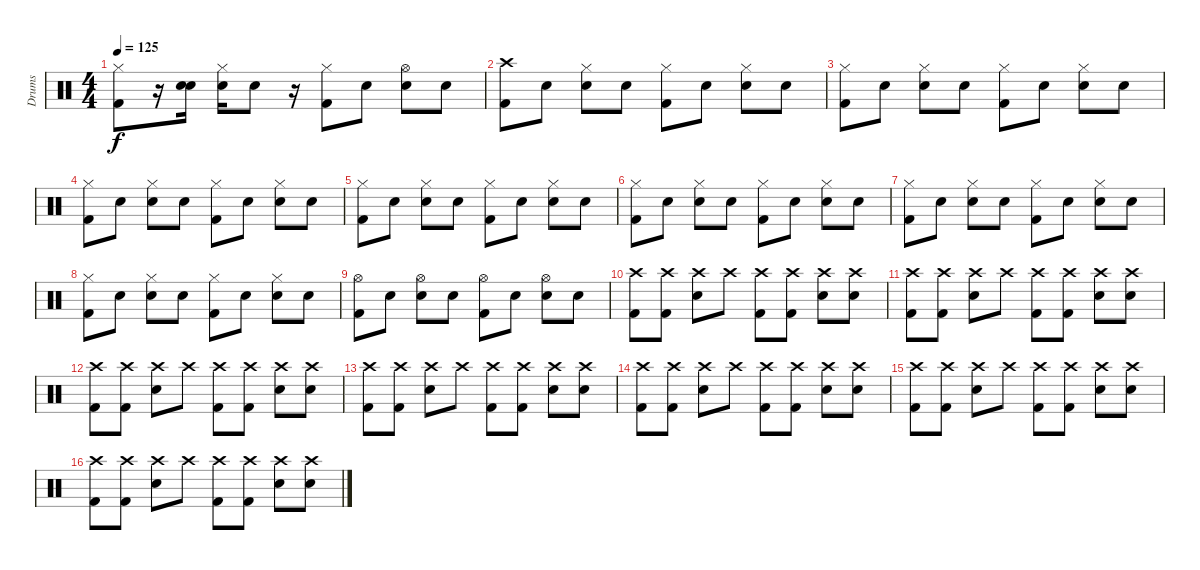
\track ("Drums" "Drums") {instrument percussion}
\staff {score}
\articulation defaults
\ts (4 4)
\tempo 125
\clef neutral
\ks c
("Kick (hit) 2" "Hi-Hat (closed)").8{dy f} r.16 ("Snare (hit) 2" "Snare (hit)").16 ("Snare (hit) 2" "Hi-Hat (closed)").16 "Snare (hit)".8 r.16 ("Kick (hit) 2" "Hi-Hat (closed)").8 "Snare (hit)".8 ("Snare (hit) 2" "Hi-Hat (open)").8 "Snare (hit)".8 |
("Kick (hit) 2" "Crash high (hit)").8 "Snare (hit)".8 ("Snare (hit) 2" "Hi-Hat (closed)").8 "Snare (hit)".8 ("Kick (hit) 2" "Hi-Hat (closed)").8 "Snare (hit)".8 ("Snare (hit) 2" "Hi-Hat (closed)").8 "Snare (hit)".8 |
("Kick (hit) 2" "Hi-Hat (closed)").8 "Snare (hit)".8 ("Snare (hit) 2" "Hi-Hat (closed)").8 "Snare (hit)".8 ("Kick (hit) 2" "Hi-Hat (closed)").8 "Snare (hit)".8 ("Snare (hit) 2" "Hi-Hat (closed)").8 "Snare (hit)".8 |
("Kick (hit) 2" "Hi-Hat (closed)").8 "Snare (hit)".8 ("Snare (hit) 2" "Hi-Hat (closed)").8 "Snare (hit)".8 ("Kick (hit) 2" "Hi-Hat (closed)").8 "Snare (hit)".8 ("Snare (hit) 2" "Hi-Hat (closed)").8 "Snare (hit)".8 |
("Kick (hit) 2" "Hi-Hat (closed)").8 "Snare (hit)".8 ("Snare (hit) 2" "Hi-Hat (closed)").8 "Snare (hit)".8 ("Kick (hit) 2" "Hi-Hat (closed)").8 "Snare (hit)".8 ("Snare (hit) 2" "Hi-Hat (closed)").8 "Snare (hit)".8 |
("Kick (hit) 2" "Hi-Hat (closed)").8 "Snare (hit)".8 ("Snare (hit) 2" "Hi-Hat (closed)").8 "Snare (hit)".8 ("Kick (hit) 2" "Hi-Hat (closed)").8 "Snare (hit)".8 ("Snare (hit) 2" "Hi-Hat (closed)").8 "Snare (hit)".8 |
("Kick (hit) 2" "Hi-Hat (closed)").8 "Snare (hit)".8 ("Snare (hit) 2" "Hi-Hat (closed)").8 "Snare (hit)".8 ("Kick (hit) 2" "Hi-Hat (closed)").8 "Snare (hit)".8 ("Snare (hit) 2" "Hi-Hat (closed)").8 "Snare (hit)".8 |
("Kick (hit) 2" "Hi-Hat (closed)").8 "Snare (hit)".8 ("Snare (hit) 2" "Hi-Hat (closed)").8 "Snare (hit)".8 ("Kick (hit) 2" "Hi-Hat (closed)").8 "Snare (hit)".8 ("Snare (hit) 2" "Hi-Hat (closed)").8 "Snare (hit)".8 |
("Kick (hit) 2" "Hi-Hat (open)").8 "Snare (hit)".8 ("Snare (hit) 2" "Hi-Hat (open)").8 "Snare (hit)".8 ("Kick (hit) 2" "Hi-Hat (open)").8 "Snare (hit)".8 ("Snare (hit) 2" "Hi-Hat (open)").8 "Snare (hit)".8 |
("Kick (hit) 2" "Crash high (hit)").8 ("Kick (hit) 2" "Crash high (hit)").8 ("Snare (hit) 2" "Crash high (hit)").8 "Crash high (hit)".8 ("Kick (hit) 2" "Crash high (hit)").8 ("Kick (hit) 2" "Crash high (hit)").8 ("Snare (hit) 2" "Crash high (hit)").8 ("Snare (hit)" "Crash high (hit)").8 |
("Kick (hit) 2" "Crash high (hit)").8 ("Kick (hit) 2" "Crash high (hit)").8 ("Snare (hit) 2" "Crash high (hit)").8 "Crash high (hit)".8 ("Kick (hit) 2" "Crash high (hit)").8 ("Kick (hit) 2" "Crash high (hit)").8 ("Snare (hit) 2" "Crash high (hit)").8 ("Snare (hit)" "Crash high (hit)").8 |
("Kick (hit) 2" "Crash high (hit)").8 ("Kick (hit) 2" "Crash high (hit)").8 ("Snare (hit) 2" "Crash high (hit)").8 "Crash high (hit)".8 ("Kick (hit) 2" "Crash high (hit)").8 ("Kick (hit) 2" "Crash high (hit)").8 ("Snare (hit) 2" "Crash high (hit)").8 ("Snare (hit)" "Crash high (hit)").8 |
("Kick (hit) 2" "Crash high (hit)").8 ("Kick (hit) 2" "Crash high (hit)").8 ("Snare (hit) 2" "Crash high (hit)").8 "Crash high (hit)".8 ("Kick (hit) 2" "Crash high (hit)").8 ("Kick (hit) 2" "Crash high (hit)").8 ("Snare (hit) 2" "Crash high (hit)").8 ("Snare (hit)" "Crash high (hit)").8 |
("Kick (hit) 2" "Crash high (hit)").8 ("Kick (hit) 2" "Crash high (hit)").8 ("Snare (hit) 2" "Crash high (hit)").8 "Crash high (hit)".8 ("Kick (hit) 2" "Crash high (hit)").8 ("Kick (hit) 2" "Crash high (hit)").8 ("Snare (hit) 2" "Crash high (hit)").8 ("Snare (hit)" "Crash high (hit)").8 |
("Kick (hit) 2" "Crash high (hit)").8 ("Kick (hit) 2" "Crash high (hit)").8 ("Snare (hit) 2" "Crash high (hit)").8 "Crash high (hit)".8 ("Kick (hit) 2" "Crash high (hit)").8 ("Kick (hit) 2" "Crash high (hit)").8 ("Snare (hit) 2" "Crash high (hit)").8 ("Snare (hit)" "Crash high (hit)").8 |
("Kick (hit) 2" "Crash high (hit)").8 ("Kick (hit) 2" "Crash high (hit)").8 ("Snare (hit) 2" "Crash high (hit)").8 "Crash high (hit)".8 ("Kick (hit) 2" "Crash high (hit)").8 ("Kick (hit) 2" "Crash high (hit)").8 ("Snare (hit) 2" "Crash high (hit)").8 ("Snare (hit)" "Crash high (hit)").8
